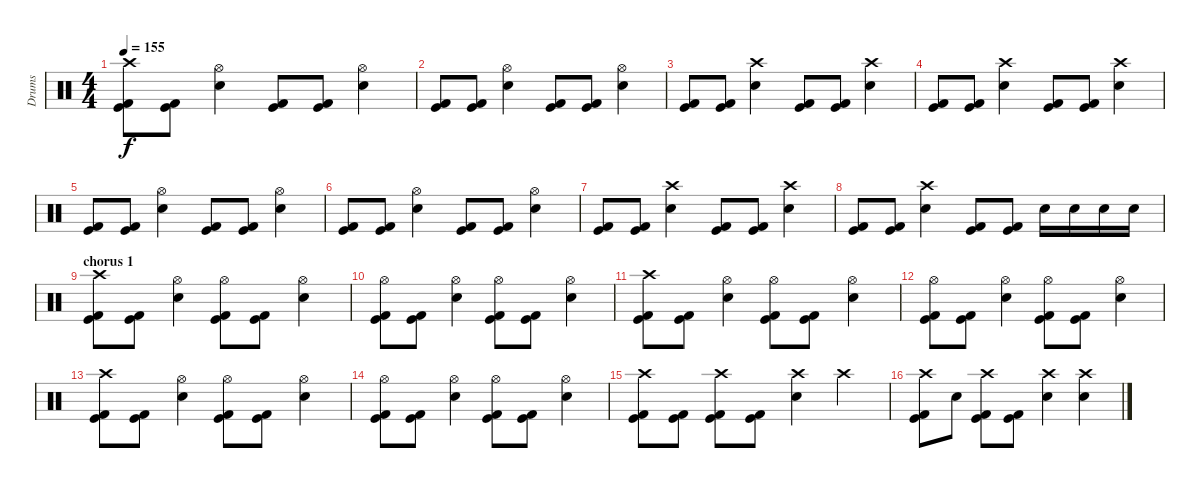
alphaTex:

\track ("Drums" "Drums") {instrument percussion}
\staff {score}
\articulation defaults
\ts (4 4)
\tempo 155
\clef neutral
\ks c
("Crash high (hit)" "Kick (hit)" "Kick (hit) 2").8{dy f} ("Kick (hit)" "Kick (hit) 2").8 ("Hi-Hat (open)" "Electric Snare (hit)").4 ("Kick (hit)" "Kick (hit) 2").8 ("Kick (hit)" "Kick (hit) 2").8 ("Hi-Hat (open)" "Electric Snare (hit)").4 |
("Kick (hit)" "Kick (hit) 2").8 ("Kick (hit)" "Kick (hit) 2").8 ("Hi-Hat (open)" "Electric Snare (hit)").4 ("Kick (hit)" "Kick (hit) 2").8 ("Kick (hit)" "Kick (hit) 2").8 ("Hi-Hat (open)" "Electric Snare (hit)").4 |
("Kick (hit)" "Kick (hit) 2").8 ("Kick (hit)" "Kick (hit) 2").8 ("Crash high (hit)" "Electric Snare (hit)").4 ("Kick (hit)" "Kick (hit) 2").8 ("Kick (hit)" "Kick (hit) 2").8 ("Crash high (hit)" "Electric Snare (hit)").4 |
("Kick (hit)" "Kick (hit) 2").8 ("Kick (hit)" "Kick (hit) 2").8 ("Crash high (hit)" "Electric Snare (hit)").4 ("Kick (hit)" "Kick (hit) 2").8 ("Kick (hit)" "Kick (hit) 2").8 ("Crash high (hit)" "Electric Snare (hit)").4 |
("Kick (hit)" "Kick (hit) 2").8 ("Kick (hit)" "Kick (hit) 2").8 ("Hi-Hat (open)" "Electric Snare (hit)").4 ("Kick (hit)" "Kick (hit) 2").8 ("Kick (hit)" "Kick (hit) 2").8 ("Hi-Hat (open)" "Electric Snare (hit)").4 |
("Kick (hit)" "Kick (hit) 2").8 ("Kick (hit)" "Kick (hit) 2").8 ("Hi-Hat (open)" "Electric Snare (hit)").4 ("Kick (hit)" "Kick (hit) 2").8 ("Kick (hit)" "Kick (hit) 2").8 ("Hi-Hat (open)" "Electric Snare (hit)").4 |
("Kick (hit)" "Kick (hit) 2").8 ("Kick (hit)" "Kick (hit) 2").8 ("Crash high (hit)" "Electric Snare (hit)").4 ("Kick (hit)" "Kick (hit) 2").8 ("Kick (hit)" "Kick (hit) 2").8 ("Crash high (hit)" "Electric Snare (hit)").4 |
("Kick (hit)" "Kick (hit) 2").8 ("Kick (hit)" "Kick (hit) 2").8 ("Crash high (hit)" "Electric Snare (hit)").4 ("Kick (hit)" "Kick (hit) 2").8 ("Kick (hit)" "Kick (hit) 2").8 "Electric Snare (hit)".16 "Electric Snare (hit)".16 "Electric Snare (hit)".16 "Electric Snare (hit)".16 |
\section ("" "chorus 1")
("Crash high (hit)" "Kick (hit)" "Kick (hit) 2").8 ("Kick (hit)" "Kick (hit) 2").8 ("Hi-Hat (open)" "Electric Snare (hit)").4 ("Hi-Hat (open)" "Kick (hit)" "Kick (hit) 2").8 ("Kick (hit)" "Kick (hit) 2").8 ("Hi-Hat (open)" "Electric Snare (hit)").4 |
("Hi-Hat (open)" "Kick (hit)" "Kick (hit) 2").8 ("Kick (hit)" "Kick (hit) 2").8 ("Hi-Hat (open)" "Electric Snare (hit)").4 ("Hi-Hat (open)" "Kick (hit)" "Kick (hit) 2").8 ("Kick (hit)" "Kick (hit) 2").8 ("Hi-Hat (open)" "Electric Snare (hit)").4 |
("Crash high (hit)" "Kick (hit)" "Kick (hit) 2").8 ("Kick (hit)" "Kick (hit) 2").8 ("Hi-Hat (open)" "Electric Snare (hit)").4 ("Hi-Hat (open)" "Kick (hit)" "Kick (hit) 2").8 ("Kick (hit)" "Kick (hit) 2").8 ("Hi-Hat (open)" "Electric Snare (hit)").4 |
("Hi-Hat (open)" "Kick (hit)" "Kick (hit) 2").8 ("Kick (hit)" "Kick (hit) 2").8 ("Hi-Hat (open)" "Electric Snare (hit)").4 ("Hi-Hat (open)" "Kick (hit)" "Kick (hit) 2").8 ("Kick (hit)" "Kick (hit) 2").8 ("Hi-Hat (open)" "Electric Snare (hit)").4 |
("Crash high (hit)" "Kick (hit)" "Kick (hit) 2").8 ("Kick (hit)" "Kick (hit) 2").8 ("Hi-Hat (open)" "Electric Snare (hit)").4 ("Hi-Hat (open)" "Kick (hit)" "Kick (hit) 2").8 ("Kick (hit)" "Kick (hit) 2").8 ("Hi-Hat (open)" "Electric Snare (hit)").4 |
("Hi-Hat (open)" "Kick (hit)" "Kick (hit) 2").8 ("Kick (hit)" "Kick (hit) 2").8 ("Hi-Hat (open)" "Electric Snare (hit)").4 ("Hi-Hat (open)" "Kick (hit)" "Kick (hit) 2").8 ("Kick (hit)" "Kick (hit) 2").8 ("Hi-Hat (open)" "Electric Snare (hit)").4 |
("Crash high (hit)" "Kick (hit)" "Kick (hit) 2").8 ("Kick (hit)" "Kick (hit) 2").8 ("Crash high (hit)" "Kick (hit)" "Kick (hit) 2").8 ("Kick (hit)" "Kick (hit) 2").8 ("Crash high (hit)" "Electric Snare (hit)").4 "Crash high (hit)".4 |
("Crash high (hit)" "Kick (hit)" "Kick (hit) 2").8 "Electric Snare (hit)".8 ("Crash high (hit)" "Kick (hit)" "Kick (hit) 2").8 ("Kick (hit)" "Kick (hit) 2").8 ("Crash high (hit)" "Electric Snare (hit)").4 ("Crash high (hit)" "Electric Snare (hit)").4
